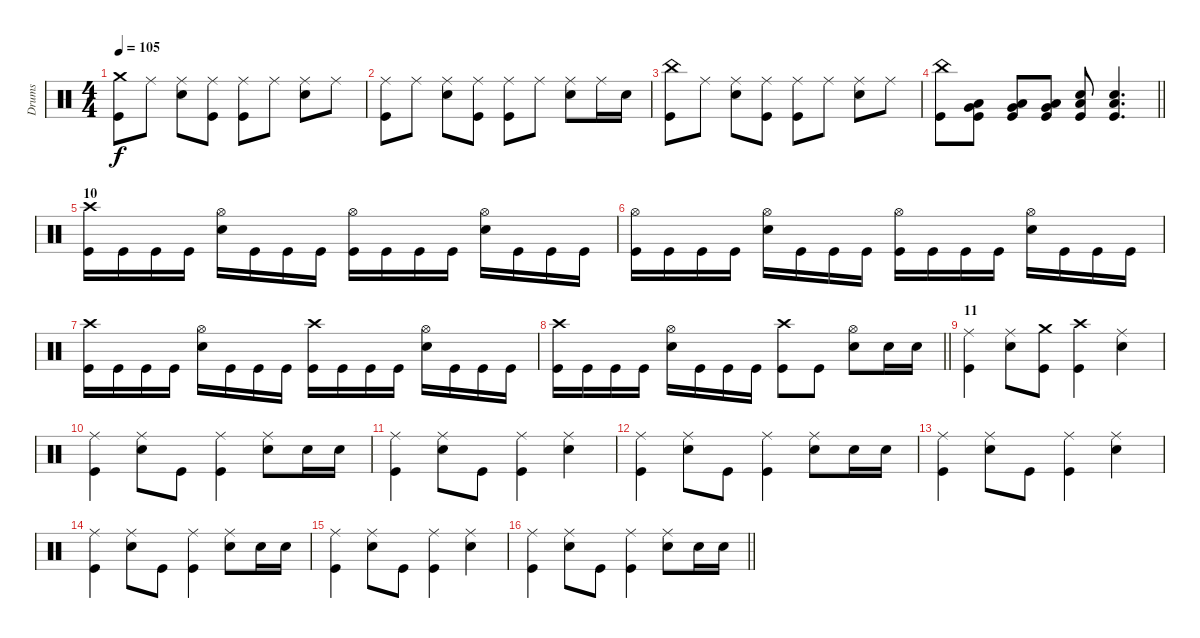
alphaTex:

\track ("Drums" "Drums") {instrument percussion}
\staff
\articulation defaults
\ts (4 4)
\tempo 105
\clef neutral
\ks c
("Crash medium (hit)" "Kick (hit)").8{dy f} "Ride (middle)".8 ("Ride (middle)" "Electric Snare (hit)").8 ("Ride (middle)" "Kick (hit)").8 ("Ride (middle)" "Kick (hit)").8 "Ride (middle)".8 ("Ride (middle)" "Electric Snare (hit)").8 "Ride (middle)".8 |
("Ride (middle)" "Kick (hit)").8 "Ride (middle)".8 ("Ride (middle)" "Electric Snare (hit)").8 ("Ride (middle)" "Kick (hit)").8 ("Ride (middle)" "Kick (hit)").8 "Ride (middle)".8 ("Ride (middle)" "Electric Snare (hit)").8 "Ride (middle)".16 "Electric Snare (hit)".16 |
("China (hit)" "Kick (hit)").8 "Ride (middle)".8 ("Ride (middle)" "Electric Snare (hit)").8 ("Ride (middle)" "Kick (hit)").8 ("Ride (middle)" "Kick (hit)").8 "Ride (middle)".8 ("Ride (middle)" "Electric Snare (hit)").8 "Ride (middle)".8 |
\barLineRight lightlight
("China (hit)" "Kick (hit)").8 ("Very Low Tom (hit)" "Low Floor Tom (hit)" "Kick (hit)").8 ("Very Low Tom (hit)" "Low Floor Tom (hit)" "Kick (hit)").8 ("Very Low Tom (hit)" "Low Floor Tom (hit)" "Kick (hit)").8 ("Electric Snare (hit)" "Low Floor Tom (hit)" "Kick (hit)").8 ("Electric Snare (hit)" "Low Floor Tom (hit)" "Kick (hit)").4{d} |
\section ("" "10")
("Crash high (hit)" "Kick (hit)").16 "Kick (hit)".16 "Kick (hit)".16 "Kick (hit)".16 ("Hi-Hat (open)" "Electric Snare (hit)").16 "Kick (hit)".16 "Kick (hit)".16 "Kick (hit)".16 ("Hi-Hat (open)" "Kick (hit)").16 "Kick (hit)".16 "Kick (hit)".16 "Kick (hit)".16 ("Hi-Hat (open)" "Electric Snare (hit)").16 "Kick (hit)".16 "Kick (hit)".16 "Kick (hit)".16 |
("Hi-Hat (open)" "Kick (hit)").16 "Kick (hit)".16 "Kick (hit)".16 "Kick (hit)".16 ("Hi-Hat (open)" "Electric Snare (hit)").16 "Kick (hit)".16 "Kick (hit)".16 "Kick (hit)".16 ("Hi-Hat (open)" "Kick (hit)").16 "Kick (hit)".16 "Kick (hit)".16 "Kick (hit)".16 ("Hi-Hat (open)" "Electric Snare (hit)").16 "Kick (hit)".16 "Kick (hit)".16 "Kick (hit)".16 |
("Crash high (hit)" "Kick (hit)").16 "Kick (hit)".16 "Kick (hit)".16 "Kick (hit)".16 ("Hi-Hat (open)" "Electric Snare (hit)").16 "Kick (hit)".16 "Kick (hit)".16 "Kick (hit)".16 ("Crash high (hit)" "Kick (hit)").16 "Kick (hit)".16 "Kick (hit)".16 "Kick (hit)".16 ("Hi-Hat (open)" "Electric Snare (hit)").16 "Kick (hit)".16 "Kick (hit)".16 "Kick (hit)".16 |
\barLineRight lightlight
("Crash high (hit)" "Kick (hit)").16 "Kick (hit)".16 "Kick (hit)".16 "Kick (hit)".16 ("Hi-Hat (open)" "Electric Snare (hit)").16 "Kick (hit)".16 "Kick (hit)".16 "Kick (hit)".16 ("Crash high (hit)" "Kick (hit)").8 "Kick (hit)".8 ("Hi-Hat (open)" "Electric Snare (hit)").8 "Electric Snare (hit)".16 "Electric Snare (hit)".16 |
\section ("" "11")
("Ride (middle)" "Kick (hit)").4 ("Ride (middle)" "Electric Snare (hit)").8 ("Crash medium (hit)" "Kick (hit)").8 ("Crash high (hit)" "Kick (hit)").4 ("Ride (middle)" "Electric Snare (hit)").4 |
("Ride (middle)" "Kick (hit)").4 ("Ride (middle)" "Electric Snare (hit)").8 "Kick (hit)".8 ("Ride (middle)" "Kick (hit)").4 ("Ride (middle)" "Electric Snare (hit)").8 "Electric Snare (hit)".16 "Electric Snare (hit)".16 |
("Ride (middle)" "Kick (hit)").4 ("Ride (middle)" "Electric Snare (hit)").8 "Kick (hit)".8 ("Ride (middle)" "Kick (hit)").4 ("Ride (middle)" "Electric Snare (hit)").4 |
("Ride (middle)" "Kick (hit)").4 ("Ride (middle)" "Electric Snare (hit)").8 "Kick (hit)".8 ("Ride (middle)" "Kick (hit)").4 ("Ride (middle)" "Electric Snare (hit)").8 "Electric Snare (hit)".16 "Electric Snare (hit)".16 |
("Ride (middle)" "Kick (hit)").4 ("Ride (middle)" "Electric Snare (hit)").8 "Kick (hit)".8 ("Ride (middle)" "Kick (hit)").4 ("Ride (middle)" "Electric Snare (hit)").4 |
("Ride (middle)" "Kick (hit)").4 ("Ride (middle)" "Electric Snare (hit)").8 "Kick (hit)".8 ("Ride (middle)" "Kick (hit)").4 ("Ride (middle)" "Electric Snare (hit)").8 "Electric Snare (hit)".16 "Electric Snare (hit)".16 |
("Ride (middle)" "Kick (hit)").4 ("Ride (middle)" "Electric Snare (hit)").8 "Kick (hit)".8 ("Ride (middle)" "Kick (hit)").4 ("Ride (middle)" "Electric Snare (hit)").4 |
\barLineRight lightlight
("Ride (middle)" "Kick (hit)").4 ("Ride (middle)" "Electric Snare (hit)").8 "Kick (hit)".8 ("Ride (middle)" "Kick (hit)").4 ("Ride (middle)" "Electric Snare (hit)").8 "Electric Snare (hit)".16 "Electric Snare (hit)".16
